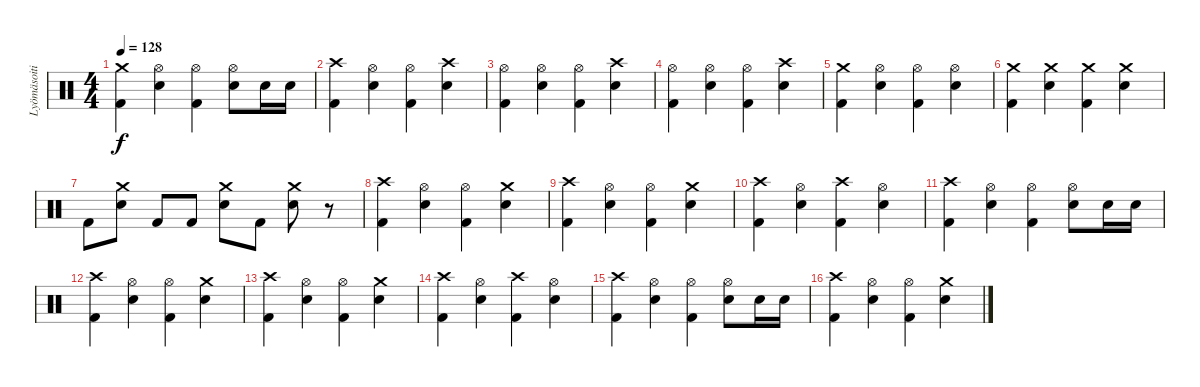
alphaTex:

\track ("Lyömäsoitin" "Lyömäsoiti") {instrument percussion}
\staff {score}
\articulation defaults
\ts (4 4)
\tempo 128
\clef neutral
\ks c
("Crash medium (hit)" "Kick (hit) 2").4{dy f} ("Hi-Hat (open)" "Electric Snare (hit)").4 ("Hi-Hat (open)" "Kick (hit) 2").4 ("Hi-Hat (open)" "Electric Snare (hit)").8 "Electric Snare (hit)".16 "Electric Snare (hit)".16 |
("Crash high (hit)" "Kick (hit) 2").4 ("Hi-Hat (open)" "Electric Snare (hit)").4 ("Hi-Hat (open)" "Kick (hit) 2").4 ("Crash high (hit)" "Electric Snare (hit)").4 |
("Hi-Hat (open)" "Kick (hit) 2").4 ("Hi-Hat (open)" "Electric Snare (hit)").4 ("Hi-Hat (open)" "Kick (hit) 2").4 ("Crash high (hit)" "Electric Snare (hit)").4 |
("Hi-Hat (open)" "Kick (hit) 2").4 ("Hi-Hat (open)" "Electric Snare (hit)").4 ("Hi-Hat (open)" "Kick (hit) 2").4 ("Crash high (hit)" "Electric Snare (hit)").4 |
("Crash medium (hit)" "Kick (hit) 2").4 ("Hi-Hat (open)" "Electric Snare (hit)").4 ("Hi-Hat (open)" "Kick (hit) 2").4 ("Hi-Hat (open)" "Electric Snare (hit)").4 |
("Crash medium (hit)" "Kick (hit) 2").4 ("Crash medium (hit)" "Electric Snare (hit)").4 ("Crash medium (hit)" "Kick (hit) 2").4 ("Crash medium (hit)" "Electric Snare (hit)").4 |
"Kick (hit) 2".8 ("Crash medium (hit)" "Electric Snare (hit)").8 "Kick (hit) 2".8 "Kick (hit) 2".8 ("Crash medium (hit)" "Electric Snare (hit)").8 "Kick (hit) 2".8 ("Crash medium (hit)" "Electric Snare (hit)").8 r.8 |
("Crash high (hit)" "Kick (hit) 2").4 ("Hi-Hat (open)" "Electric Snare (hit)").4 ("Hi-Hat (open)" "Kick (hit) 2").4 ("Crash medium (hit)" "Electric Snare (hit)").4 |
("Crash high (hit)" "Kick (hit) 2").4 ("Hi-Hat (open)" "Electric Snare (hit)").4 ("Hi-Hat (open)" "Kick (hit) 2").4 ("Crash medium (hit)" "Electric Snare (hit)").4 |
("Crash high (hit)" "Kick (hit) 2").4 ("Hi-Hat (open)" "Electric Snare (hit)").4 ("Crash high (hit)" "Kick (hit) 2").4 ("Hi-Hat (open)" "Electric Snare (hit)").4 |
("Crash high (hit)" "Kick (hit) 2").4 ("Hi-Hat (open)" "Electric Snare (hit)").4 ("Hi-Hat (open)" "Kick (hit) 2").4 ("Hi-Hat (open)" "Electric Snare (hit)").8 "Electric Snare (hit)".16 "Electric Snare (hit)".16 |
("Crash high (hit)" "Kick (hit) 2").4 ("Hi-Hat (open)" "Electric Snare (hit)").4 ("Hi-Hat (open)" "Kick (hit) 2").4 ("Crash medium (hit)" "Electric Snare (hit)").4 |
("Crash high (hit)" "Kick (hit) 2").4 ("Hi-Hat (open)" "Electric Snare (hit)").4 ("Hi-Hat (open)" "Kick (hit) 2").4 ("Crash medium (hit)" "Electric Snare (hit)").4 |
("Crash high (hit)" "Kick (hit) 2").4 ("Hi-Hat (open)" "Electric Snare (hit)").4 ("Crash high (hit)" "Kick (hit) 2").4 ("Hi-Hat (open)" "Electric Snare (hit)").4 |
("Crash high (hit)" "Kick (hit) 2").4 ("Hi-Hat (open)" "Electric Snare (hit)").4 ("Hi-Hat (open)" "Kick (hit) 2").4 ("Hi-Hat (open)" "Electric Snare (hit)").8 "Electric Snare (hit)".16 "Electric Snare (hit)".16 |
("Crash high (hit)" "Kick (hit) 2").4 ("Hi-Hat (open)" "Electric Snare (hit)").4 ("Hi-Hat (open)" "Kick (hit) 2").4 ("Crash medium (hit)" "Electric Snare (hit)").4
